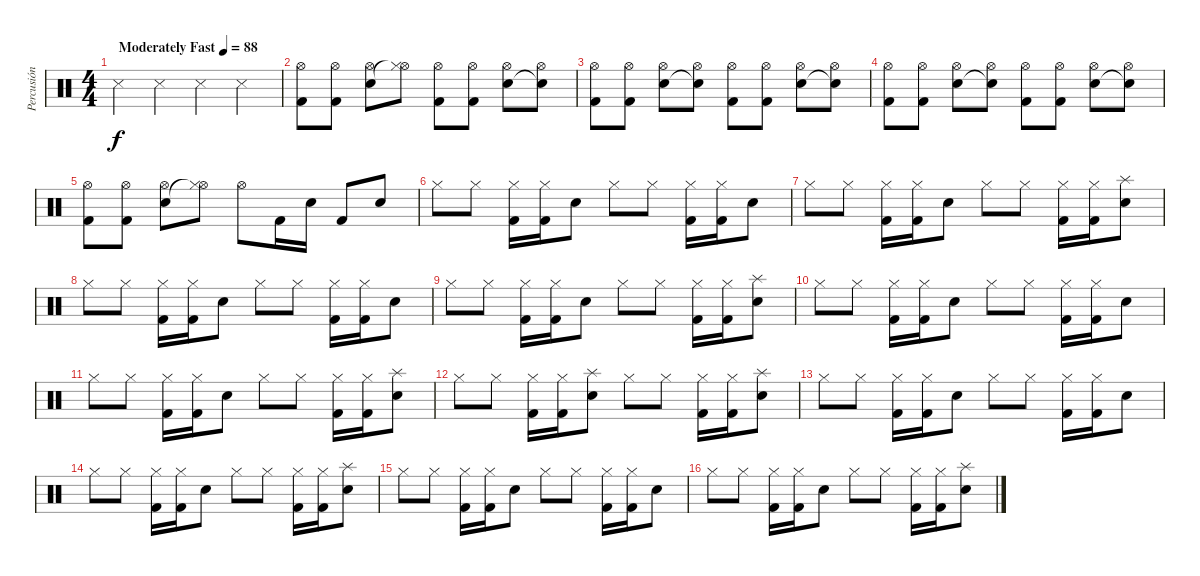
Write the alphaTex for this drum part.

\track ("Percusión" "Percusión") {instrument percussion}
\staff {score}
\articulation defaults
\ts (4 4)
\tempo (88 "Moderately Fast")
\clef neutral
\ks c "Snare (side stick) 3".4{dy f} "Snare (side stick) 3".4 "Snare (side stick) 3".4 "Snare (side stick) 3".4
|
("Hi-Hat (open)" "Kick (hit) 2").8 ("Hi-Hat (open)" "Kick (hit) 2").8 ("Hi-Hat (open)" "Snare (hit) 2").8 ("Hi-Hat (open)" "Hi-Hat (closed)"{t}).8 ("Hi-Hat (open)" "Kick (hit) 2").8 ("Hi-Hat (open)" "Kick (hit) 2").8 ("Hi-Hat (open)" "Snare (hit) 2").8 ("Hi-Hat (open)" "Snare (hit)"{t}).8 |
("Hi-Hat (open)" "Kick (hit) 2").8 ("Hi-Hat (open)" "Kick (hit) 2").8 ("Hi-Hat (open)" "Snare (hit) 2").8 ("Hi-Hat (open)" "Snare (hit)"{t}).8 ("Hi-Hat (open)" "Kick (hit) 2").8 ("Hi-Hat (open)" "Kick (hit) 2").8 ("Hi-Hat (open)" "Snare (hit) 2").8 ("Hi-Hat (open)" "Snare (hit)"{t}).8 |
("Hi-Hat (open)" "Kick (hit) 2").8 ("Hi-Hat (open)" "Kick (hit) 2").8 ("Hi-Hat (open)" "Snare (hit) 2").8 ("Hi-Hat (open)" "Snare (hit)"{t}).8 ("Hi-Hat (open)" "Kick (hit) 2").8 ("Hi-Hat (open)" "Kick (hit) 2").8 ("Hi-Hat (open)" "Snare (hit) 2").8 ("Hi-Hat (open)" "Snare (hit)"{t}).8 |
("Hi-Hat (open)" "Kick (hit) 2").8 ("Hi-Hat (open)" "Kick (hit) 2").8 ("Hi-Hat (open)" "Snare (hit) 2").8 ("Hi-Hat (open)" "Hi-Hat (closed)"{t}).8 "Hi-Hat (open)".8 "Kick (hit) 2".16 "Snare (hit) 2".16 "Kick (hit) 2".8 "Snare (hit) 2".8 |
"Hi-Hat (closed)".8 "Hi-Hat (closed)".8 ("Hi-Hat (closed)" "Kick (hit) 2").16 ("Hi-Hat (closed)" "Kick (hit) 2").16 "Snare (hit) 2".8 "Hi-Hat (closed)".8 "Hi-Hat (closed)".8 ("Hi-Hat (closed)" "Kick (hit) 2").16 ("Hi-Hat (closed)" "Kick (hit) 2").16 "Snare (hit) 2".8 |
"Hi-Hat (closed)".8 "Hi-Hat (closed)".8 ("Hi-Hat (closed)" "Kick (hit) 2").16 ("Hi-Hat (closed)" "Kick (hit) 2").16 "Snare (hit) 2".8 "Hi-Hat (closed)".8 "Hi-Hat (closed)".8 ("Hi-Hat (closed)" "Kick (hit) 2").16 ("Hi-Hat (closed)" "Kick (hit) 2").16 ("Splash (hit)" "Snare (hit) 2").8 |
"Hi-Hat (closed)".8 "Hi-Hat (closed)".8 ("Hi-Hat (closed)" "Kick (hit) 2").16 ("Hi-Hat (closed)" "Kick (hit) 2").16 "Snare (hit) 2".8 "Hi-Hat (closed)".8 "Hi-Hat (closed)".8 ("Hi-Hat (closed)" "Kick (hit) 2").16 ("Hi-Hat (closed)" "Kick (hit) 2").16 "Snare (hit) 2".8 |
"Hi-Hat (closed)".8 "Hi-Hat (closed)".8 ("Hi-Hat (closed)" "Kick (hit) 2").16 ("Hi-Hat (closed)" "Kick (hit) 2").16 "Snare (hit) 2".8 "Hi-Hat (closed)".8 "Hi-Hat (closed)".8 ("Hi-Hat (closed)" "Kick (hit) 2").16 ("Hi-Hat (closed)" "Kick (hit) 2").16 ("Splash (hit)" "Snare (hit) 2").8 |
"Hi-Hat (closed)".8 "Hi-Hat (closed)".8 ("Hi-Hat (closed)" "Kick (hit) 2").16 ("Hi-Hat (closed)" "Kick (hit) 2").16 "Snare (hit) 2".8 "Hi-Hat (closed)".8 "Hi-Hat (closed)".8 ("Hi-Hat (closed)" "Kick (hit) 2").16 ("Hi-Hat (closed)" "Kick (hit) 2").16 "Snare (hit) 2".8 |
"Hi-Hat (closed)".8 "Hi-Hat (closed)".8 ("Hi-Hat (closed)" "Kick (hit) 2").16 ("Hi-Hat (closed)" "Kick (hit) 2").16 "Snare (hit) 2".8 "Hi-Hat (closed)".8 "Hi-Hat (closed)".8 ("Hi-Hat (closed)" "Kick (hit) 2").16 ("Hi-Hat (closed)" "Kick (hit) 2").16 ("Splash (hit)" "Snare (hit) 2").8 |
"Hi-Hat (closed)".8 "Hi-Hat (closed)".8 ("Hi-Hat (closed)" "Kick (hit) 2").16 ("Hi-Hat (closed)" "Kick (hit) 2").16 ("Splash (hit)" "Snare (hit) 2").8 "Hi-Hat (closed)".8 "Hi-Hat (closed)".8 ("Hi-Hat (closed)" "Kick (hit) 2").16 ("Hi-Hat (closed)" "Kick (hit) 2").16 ("Splash (hit)" "Snare (hit) 2").8 |
"Hi-Hat (closed)".8 "Hi-Hat (closed)".8 ("Hi-Hat (closed)" "Kick (hit) 2").16 ("Hi-Hat (closed)" "Kick (hit) 2").16 "Snare (hit) 2".8 "Hi-Hat (closed)".8 "Hi-Hat (closed)".8 ("Hi-Hat (closed)" "Kick (hit) 2").16 ("Hi-Hat (closed)" "Kick (hit) 2").16 "Snare (hit) 2".8 |
"Hi-Hat (closed)".8 "Hi-Hat (closed)".8 ("Hi-Hat (closed)" "Kick (hit) 2").16 ("Hi-Hat (closed)" "Kick (hit) 2").16 "Snare (hit) 2".8 "Hi-Hat (closed)".8 "Hi-Hat (closed)".8 ("Hi-Hat (closed)" "Kick (hit) 2").16 ("Hi-Hat (closed)" "Kick (hit) 2").16 ("Splash (hit)" "Snare (hit) 2").8 |
"Hi-Hat (closed)".8 "Hi-Hat (closed)".8 ("Hi-Hat (closed)" "Kick (hit) 2").16 ("Hi-Hat (closed)" "Kick (hit) 2").16 "Snare (hit) 2".8 "Hi-Hat (closed)".8 "Hi-Hat (closed)".8 ("Hi-Hat (closed)" "Kick (hit) 2").16 ("Hi-Hat (closed)" "Kick (hit) 2").16 "Snare (hit) 2".8 |
"Hi-Hat (closed)".8 "Hi-Hat (closed)".8 ("Hi-Hat (closed)" "Kick (hit) 2").16 ("Hi-Hat (closed)" "Kick (hit) 2").16 "Snare (hit) 2".8 "Hi-Hat (closed)".8 "Hi-Hat (closed)".8 ("Hi-Hat (closed)" "Kick (hit) 2").16 ("Hi-Hat (closed)" "Kick (hit) 2").16 ("Splash (hit)" "Snare (hit) 2").8
